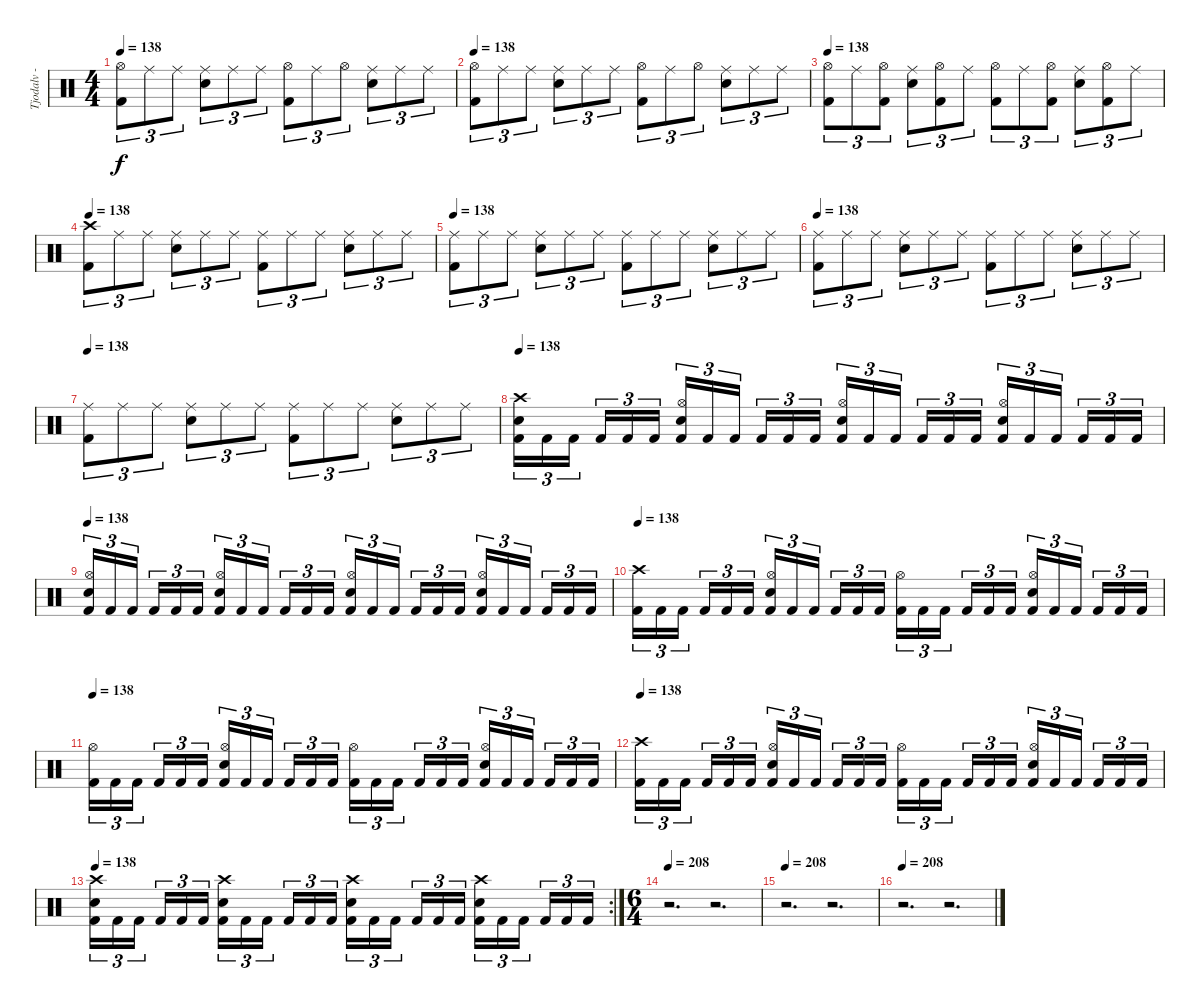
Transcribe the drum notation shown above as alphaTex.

\track ("Tjodalv - Drums" "Tjodalv - ") {instrument percussion}
\staff {score}
\articulation defaults
\ts (4 4)
\tempo 138
\clef neutral
\ks c
("Kick (hit) 2" "Hi-Hat (open)").8{tu (3 2) dy f} "Ride (middle)".8{tu (3 2)} "Ride (middle)".8{tu (3 2)} ("Snare (hit) 2" "Ride (middle)").8{tu (3 2)} "Ride (middle)".8{tu (3 2)} "Ride (middle)".8{tu (3 2)} ("Kick (hit) 2" "Hi-Hat (open)").8{tu (3 2)} "Ride (middle)".8{tu (3 2)} "Hi-Hat (open)".8{tu (3 2)} ("Snare (hit) 2" "Ride (middle)").8{tu (3 2)} "Ride (middle)".8{tu (3 2)} "Ride (middle)".8{tu (3 2)} |
\tempo 138
("Kick (hit) 2" "Hi-Hat (open)").8{tu (3 2)} "Ride (middle)".8{tu (3 2)} "Ride (middle)".8{tu (3 2)} ("Snare (hit) 2" "Ride (middle)").8{tu (3 2)} "Ride (middle)".8{tu (3 2)} "Ride (middle)".8{tu (3 2)} ("Kick (hit) 2" "Hi-Hat (open)").8{tu (3 2)} "Ride (middle)".8{tu (3 2)} "Hi-Hat (open)".8{tu (3 2)} ("Snare (hit) 2" "Ride (middle)").8{tu (3 2)} "Ride (middle)".8{tu (3 2)} "Ride (middle)".8{tu (3 2)} |
\tempo 138
("Kick (hit) 2" "Hi-Hat (open)").8{tu (3 2)} "Ride (middle)".8{tu (3 2)} ("Kick (hit) 2" "Hi-Hat (open)").8{tu (3 2)} ("Snare (hit) 2" "Ride (middle)").8{tu (3 2)} ("Kick (hit) 2" "Hi-Hat (open)").8{tu (3 2)} "Ride (middle)".8{tu (3 2)} ("Kick (hit) 2" "Hi-Hat (open)").8{tu (3 2)} "Ride (middle)".8{tu (3 2)} ("Kick (hit) 2" "Hi-Hat (open)").8{tu (3 2)} ("Snare (hit) 2" "Ride (middle)").8{tu (3 2)} ("Kick (hit) 2" "Hi-Hat (open)").8{tu (3 2)} "Ride (middle)".8{tu (3 2)} |
\tempo 138
("Kick (hit) 2" "Crash high (hit)").8{tu (3 2)} "Ride (middle)".8{tu (3 2)} "Ride (middle)".8{tu (3 2)} ("Snare (hit) 2" "Ride (middle)").8{tu (3 2)} "Ride (middle)".8{tu (3 2)} "Ride (middle)".8{tu (3 2)} ("Kick (hit) 2" "Ride (middle)").8{tu (3 2)} "Ride (middle)".8{tu (3 2)} "Ride (middle)".8{tu (3 2)} ("Snare (hit) 2" "Ride (middle)").8{tu (3 2)} "Ride (middle)".8{tu (3 2)} "Ride (middle)".8{tu (3 2)} |
\tempo 138
("Kick (hit) 2" "Ride (middle)").8{tu (3 2)} "Ride (middle)".8{tu (3 2)} "Ride (middle)".8{tu (3 2)} ("Snare (hit) 2" "Ride (middle)").8{tu (3 2)} "Ride (middle)".8{tu (3 2)} "Ride (middle)".8{tu (3 2)} ("Kick (hit) 2" "Ride (middle)").8{tu (3 2)} "Ride (middle)".8{tu (3 2)} "Ride (middle)".8{tu (3 2)} ("Snare (hit) 2" "Ride (middle)").8{tu (3 2)} "Ride (middle)".8{tu (3 2)} "Ride (middle)".8{tu (3 2)} |
\tempo 138
("Kick (hit) 2" "Ride (middle)").8{tu (3 2)} "Ride (middle)".8{tu (3 2)} "Ride (middle)".8{tu (3 2)} ("Snare (hit) 2" "Ride (middle)").8{tu (3 2)} "Ride (middle)".8{tu (3 2)} "Ride (middle)".8{tu (3 2)} ("Kick (hit) 2" "Ride (middle)").8{tu (3 2)} "Ride (middle)".8{tu (3 2)} "Ride (middle)".8{tu (3 2)} ("Snare (hit) 2" "Ride (middle)").8{tu (3 2)} "Ride (middle)".8{tu (3 2)} "Ride (middle)".8{tu (3 2)} |
\tempo 138
("Kick (hit) 2" "Ride (middle)").8{tu (3 2)} "Ride (middle)".8{tu (3 2)} "Ride (middle)".8{tu (3 2)} ("Snare (hit) 2" "Ride (middle)").8{tu (3 2)} "Ride (middle)".8{tu (3 2)} "Ride (middle)".8{tu (3 2)} ("Kick (hit) 2" "Ride (middle)").8{tu (3 2)} "Ride (middle)".8{tu (3 2)} "Ride (middle)".8{tu (3 2)} ("Snare (hit) 2" "Ride (middle)").8{tu (3 2)} "Ride (middle)".8{tu (3 2)} "Ride (middle)".8{tu (3 2)} |
\tempo 138
("Kick (hit) 2" "Snare (hit) 2" "Crash high (hit)").16{tu (3 2)} "Kick (hit) 2".16{tu (3 2)} "Kick (hit) 2".16{tu (3 2)} "Kick (hit) 2".16{tu (3 2)} "Kick (hit) 2".16{tu (3 2)} "Kick (hit) 2".16{tu (3 2)} ("Kick (hit) 2" "Snare (hit) 2" "Hi-Hat (open)").16{tu (3 2)} "Kick (hit) 2".16{tu (3 2)} "Kick (hit) 2".16{tu (3 2)} "Kick (hit) 2".16{tu (3 2)} "Kick (hit) 2".16{tu (3 2)} "Kick (hit) 2".16{tu (3 2)} ("Kick (hit) 2" "Snare (hit) 2" "Hi-Hat (open)").16{tu (3 2)} "Kick (hit) 2".16{tu (3 2)} "Kick (hit) 2".16{tu (3 2)} "Kick (hit) 2".16{tu (3 2)} "Kick (hit) 2".16{tu (3 2)} "Kick (hit) 2".16{tu (3 2)} ("Kick (hit) 2" "Snare (hit) 2" "Hi-Hat (open)").16{tu (3 2)} "Kick (hit) 2".16{tu (3 2)} "Kick (hit) 2".16{tu (3 2)} "Kick (hit) 2".16{tu (3 2)} "Kick (hit) 2".16{tu (3 2)} "Kick (hit) 2".16{tu (3 2)} |
\tempo 138
("Kick (hit) 2" "Snare (hit) 2" "Hi-Hat (open)").16{tu (3 2)} "Kick (hit) 2".16{tu (3 2)} "Kick (hit) 2".16{tu (3 2)} "Kick (hit) 2".16{tu (3 2)} "Kick (hit) 2".16{tu (3 2)} "Kick (hit) 2".16{tu (3 2)} ("Kick (hit) 2" "Snare (hit) 2" "Hi-Hat (open)").16{tu (3 2)} "Kick (hit) 2".16{tu (3 2)} "Kick (hit) 2".16{tu (3 2)} "Kick (hit) 2".16{tu (3 2)} "Kick (hit) 2".16{tu (3 2)} "Kick (hit) 2".16{tu (3 2)} ("Kick (hit) 2" "Snare (hit) 2" "Hi-Hat (open)").16{tu (3 2)} "Kick (hit) 2".16{tu (3 2)} "Kick (hit) 2".16{tu (3 2)} "Kick (hit) 2".16{tu (3 2)} "Kick (hit) 2".16{tu (3 2)} "Kick (hit) 2".16{tu (3 2)} ("Kick (hit) 2" "Snare (hit) 2" "Hi-Hat (open)").16{tu (3 2)} "Kick (hit) 2".16{tu (3 2)} "Kick (hit) 2".16{tu (3 2)} "Kick (hit) 2".16{tu (3 2)} "Kick (hit) 2".16{tu (3 2)} "Kick (hit) 2".16{tu (3 2)} |
\tempo 138
("Kick (hit) 2" "Crash high (hit)").16{tu (3 2)} "Kick (hit) 2".16{tu (3 2)} "Kick (hit) 2".16{tu (3 2)} "Kick (hit) 2".16{tu (3 2)} "Kick (hit) 2".16{tu (3 2)} "Kick (hit) 2".16{tu (3 2)} ("Kick (hit) 2" "Snare (hit) 2" "Hi-Hat (open)").16{tu (3 2)} "Kick (hit) 2".16{tu (3 2)} "Kick (hit) 2".16{tu (3 2)} "Kick (hit) 2".16{tu (3 2)} "Kick (hit) 2".16{tu (3 2)} "Kick (hit) 2".16{tu (3 2)} ("Kick (hit) 2" "Hi-Hat (open)").16{tu (3 2)} "Kick (hit) 2".16{tu (3 2)} "Kick (hit) 2".16{tu (3 2)} "Kick (hit) 2".16{tu (3 2)} "Kick (hit) 2".16{tu (3 2)} "Kick (hit) 2".16{tu (3 2)} ("Kick (hit) 2" "Snare (hit) 2" "Hi-Hat (open)").16{tu (3 2)} "Kick (hit) 2".16{tu (3 2)} "Kick (hit) 2".16{tu (3 2)} "Kick (hit) 2".16{tu (3 2)} "Kick (hit) 2".16{tu (3 2)} "Kick (hit) 2".16{tu (3 2)} |
\tempo 138
("Kick (hit) 2" "Hi-Hat (open)").16{tu (3 2)} "Kick (hit) 2".16{tu (3 2)} "Kick (hit) 2".16{tu (3 2)} "Kick (hit) 2".16{tu (3 2)} "Kick (hit) 2".16{tu (3 2)} "Kick (hit) 2".16{tu (3 2)} ("Kick (hit) 2" "Snare (hit) 2" "Hi-Hat (open)").16{tu (3 2)} "Kick (hit) 2".16{tu (3 2)} "Kick (hit) 2".16{tu (3 2)} "Kick (hit) 2".16{tu (3 2)} "Kick (hit) 2".16{tu (3 2)} "Kick (hit) 2".16{tu (3 2)} ("Kick (hit) 2" "Hi-Hat (open)").16{tu (3 2)} "Kick (hit) 2".16{tu (3 2)} "Kick (hit) 2".16{tu (3 2)} "Kick (hit) 2".16{tu (3 2)} "Kick (hit) 2".16{tu (3 2)} "Kick (hit) 2".16{tu (3 2)} ("Kick (hit) 2" "Snare (hit) 2" "Hi-Hat (open)").16{tu (3 2)} "Kick (hit) 2".16{tu (3 2)} "Kick (hit) 2".16{tu (3 2)} "Kick (hit) 2".16{tu (3 2)} "Kick (hit) 2".16{tu (3 2)} "Kick (hit) 2".16{tu (3 2)} |
\tempo 138
("Kick (hit) 2" "Crash high (hit)").16{tu (3 2)} "Kick (hit) 2".16{tu (3 2)} "Kick (hit) 2".16{tu (3 2)} "Kick (hit) 2".16{tu (3 2)} "Kick (hit) 2".16{tu (3 2)} "Kick (hit) 2".16{tu (3 2)} ("Kick (hit) 2" "Snare (hit) 2" "Hi-Hat (open)").16{tu (3 2)} "Kick (hit) 2".16{tu (3 2)} "Kick (hit) 2".16{tu (3 2)} "Kick (hit) 2".16{tu (3 2)} "Kick (hit) 2".16{tu (3 2)} "Kick (hit) 2".16{tu (3 2)} ("Kick (hit) 2" "Hi-Hat (open)").16{tu (3 2)} "Kick (hit) 2".16{tu (3 2)} "Kick (hit) 2".16{tu (3 2)} "Kick (hit) 2".16{tu (3 2)} "Kick (hit) 2".16{tu (3 2)} "Kick (hit) 2".16{tu (3 2)} ("Kick (hit) 2" "Snare (hit) 2" "Hi-Hat (open)").16{tu (3 2)} "Kick (hit) 2".16{tu (3 2)} "Kick (hit) 2".16{tu (3 2)} "Kick (hit) 2".16{tu (3 2)} "Kick (hit) 2".16{tu (3 2)} "Kick (hit) 2".16{tu (3 2)} |
\rc 2
\tempo 138
("Kick (hit) 2" "Snare (hit) 2" "Crash high (hit)").16{tu (3 2)} "Kick (hit) 2".16{tu (3 2)} "Kick (hit) 2".16{tu (3 2)} "Kick (hit) 2".16{tu (3 2)} "Kick (hit) 2".16{tu (3 2)} "Kick (hit) 2".16{tu (3 2)} ("Kick (hit) 2" "Snare (hit) 2" "Crash high (hit)").16{tu (3 2)} "Kick (hit) 2".16{tu (3 2)} "Kick (hit) 2".16{tu (3 2)} "Kick (hit) 2".16{tu (3 2)} "Kick (hit) 2".16{tu (3 2)} "Kick (hit) 2".16{tu (3 2)} ("Kick (hit) 2" "Snare (hit) 2" "Crash high (hit)").16{tu (3 2)} "Kick (hit) 2".16{tu (3 2)} "Kick (hit) 2".16{tu (3 2)} "Kick (hit) 2".16{tu (3 2)} "Kick (hit) 2".16{tu (3 2)} "Kick (hit) 2".16{tu (3 2)} ("Kick (hit) 2" "Snare (hit) 2" "Crash high (hit)").16{tu (3 2)} "Kick (hit) 2".16{tu (3 2)} "Kick (hit) 2".16{tu (3 2)} "Kick (hit) 2".16{tu (3 2)} "Kick (hit) 2".16{tu (3 2)} "Kick (hit) 2".16{tu (3 2)} |
\ts (6 4)
\tempo 208
r.2{d} r.2{d} |
\tempo 208
r.2{d} r.2{d} |
\tempo 208
r.2{d} r.2{d}
